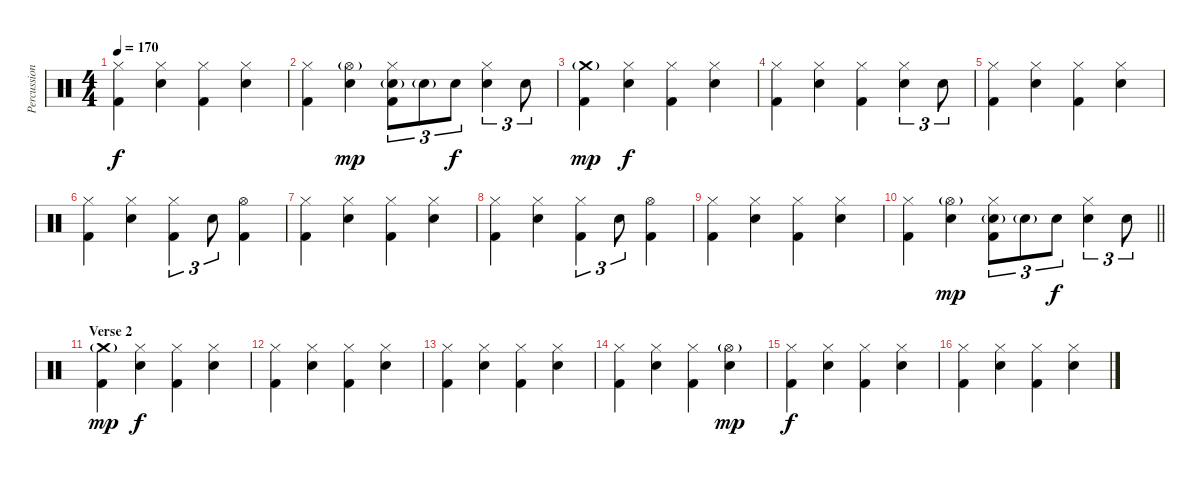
\track ("Percussion" "Percussion") {instrument percussion}
\staff {score}
\articulation defaults
\ts (4 4)
\tempo 170
\clef neutral
\ks c
("Hi-Hat (closed)" "Kick (hit) 2").4{dy f} ("Hi-Hat (closed)" "Snare (hit) 2").4 ("Hi-Hat (closed)" "Kick (hit) 2").4 ("Hi-Hat (closed)" "Snare (hit) 2").4 |
("Hi-Hat (closed)" "Kick (hit) 2").4 ("Hi-Hat (open)"{g} "Snare (hit) 2").4{dy mp} ("Hi-Hat (closed)" "Snare (hit) 2"{g} "Kick (hit) 2").8{tu (3 2)} "Snare (hit) 2"{g}.8{tu (3 2)} "Snare (hit) 2".8{tu (3 2) dy f} ("Hi-Hat (closed)" "Snare (hit) 2").4{tu (3 2)} "Snare (hit) 2".8{tu (3 2)} |
("Crash medium (hit)"{g} "Kick (hit) 2").4{dy mp} ("Hi-Hat (closed)" "Snare (hit) 2").4{dy f} ("Hi-Hat (closed)" "Kick (hit) 2").4 ("Hi-Hat (closed)" "Snare (hit) 2").4 |
("Hi-Hat (closed)" "Kick (hit) 2").4 ("Hi-Hat (closed)" "Snare (hit) 2").4 ("Hi-Hat (closed)" "Kick (hit) 2").4 ("Hi-Hat (closed)" "Snare (hit) 2").4{tu (3 2)} "Snare (hit) 2".8{tu (3 2)} |
("Hi-Hat (closed)" "Kick (hit) 2").4 ("Hi-Hat (closed)" "Snare (hit) 2").4 ("Hi-Hat (closed)" "Kick (hit) 2").4 ("Hi-Hat (closed)" "Snare (hit) 2").4 |
("Hi-Hat (closed)" "Kick (hit) 2").4 ("Hi-Hat (closed)" "Snare (hit) 2").4 ("Hi-Hat (closed)" "Kick (hit) 2").4{tu (3 2)} "Snare (hit) 2".8{tu (3 2)} ("Hi-Hat (open)" "Kick (hit) 2").4 |
("Hi-Hat (closed)" "Kick (hit) 2").4 ("Hi-Hat (closed)" "Snare (hit) 2").4 ("Hi-Hat (closed)" "Kick (hit) 2").4 ("Hi-Hat (closed)" "Snare (hit) 2").4 |
("Hi-Hat (closed)" "Kick (hit) 2").4 ("Hi-Hat (closed)" "Snare (hit) 2").4 ("Hi-Hat (closed)" "Kick (hit) 2").4{tu (3 2)} "Snare (hit) 2".8{tu (3 2)} ("Hi-Hat (open)" "Kick (hit) 2").4 |
("Hi-Hat (closed)" "Kick (hit) 2").4 ("Hi-Hat (closed)" "Snare (hit) 2").4 ("Hi-Hat (closed)" "Kick (hit) 2").4 ("Hi-Hat (closed)" "Snare (hit) 2").4 |
\barLineRight lightlight
("Hi-Hat (closed)" "Kick (hit) 2").4 ("Hi-Hat (open)"{g} "Snare (hit) 2").4{dy mp} ("Hi-Hat (closed)" "Snare (hit) 2"{g} "Kick (hit) 2").8{tu (3 2)} "Snare (hit) 2"{g}.8{tu (3 2)} "Snare (hit) 2".8{tu (3 2) dy f} ("Hi-Hat (closed)" "Snare (hit) 2").4{tu (3 2)} "Snare (hit) 2".8{tu (3 2)} |
\section ("" "Verse 2")
("Crash medium (hit)"{g} "Kick (hit) 2").4{dy mp} ("Hi-Hat (closed)" "Snare (hit) 2").4{dy f} ("Hi-Hat (closed)" "Kick (hit) 2").4 ("Hi-Hat (closed)" "Snare (hit) 2").4 |
("Hi-Hat (closed)" "Kick (hit) 2").4 ("Hi-Hat (closed)" "Snare (hit) 2").4 ("Hi-Hat (closed)" "Kick (hit) 2").4 ("Hi-Hat (closed)" "Snare (hit) 2").4 |
("Hi-Hat (closed)" "Kick (hit) 2").4 ("Hi-Hat (closed)" "Snare (hit) 2").4 ("Hi-Hat (closed)" "Kick (hit) 2").4 ("Hi-Hat (closed)" "Snare (hit) 2").4 |
("Hi-Hat (closed)" "Kick (hit) 2").4 ("Hi-Hat (closed)" "Snare (hit) 2").4 ("Hi-Hat (closed)" "Kick (hit) 2").4 ("Hi-Hat (open)"{g} "Snare (hit) 2").4{dy mp} |
("Hi-Hat (closed)" "Kick (hit) 2").4{dy f} ("Hi-Hat (closed)" "Snare (hit) 2").4 ("Hi-Hat (closed)" "Kick (hit) 2").4 ("Hi-Hat (closed)" "Snare (hit) 2").4 |
("Hi-Hat (closed)" "Kick (hit) 2").4 ("Hi-Hat (closed)" "Snare (hit) 2").4 ("Hi-Hat (closed)" "Kick (hit) 2").4 ("Hi-Hat (closed)" "Snare (hit) 2").4
